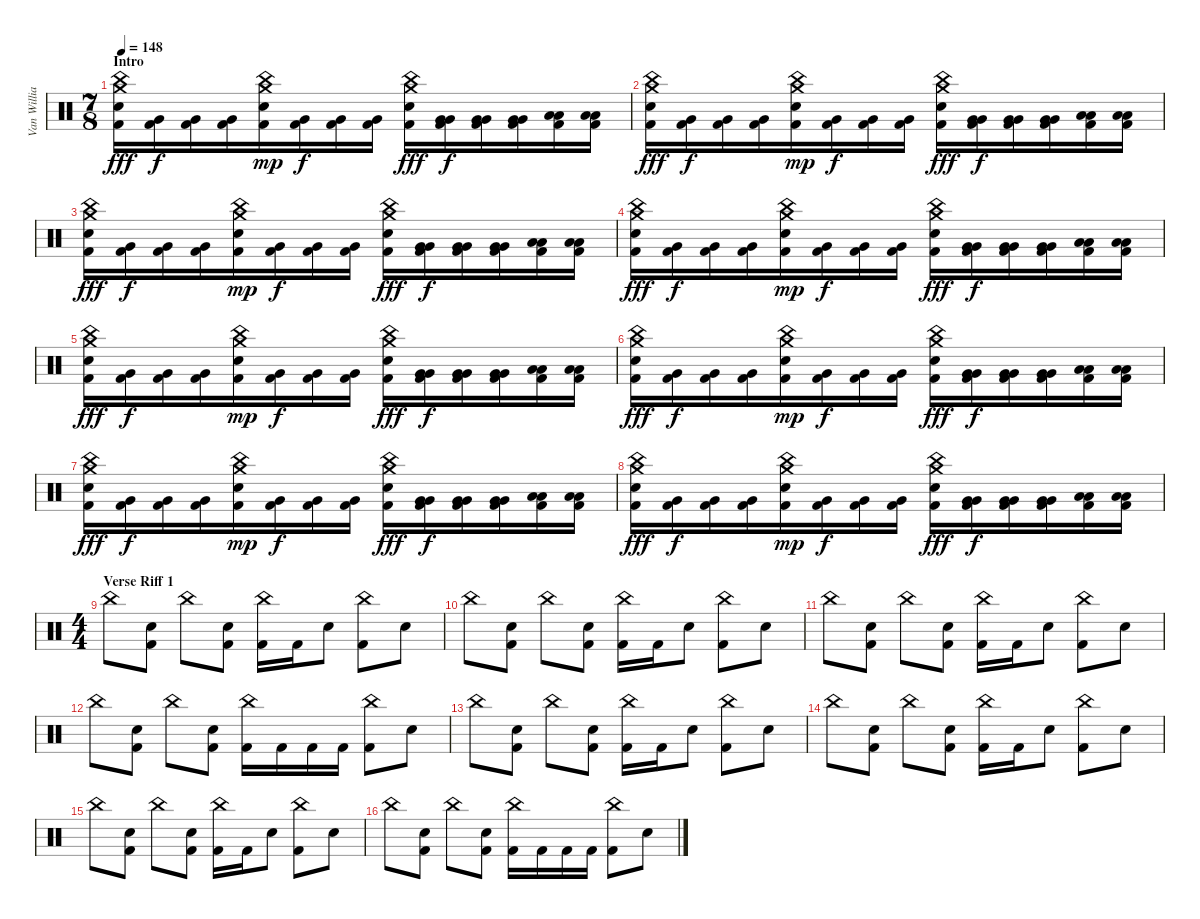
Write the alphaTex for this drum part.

\track ("Van Williams" "Van Willia") {instrument percussion}
\staff {score}
\articulation defaults
\ts (7 8)
\section ("" "Intro")
\tempo 148
\clef neutral
\ks c
("China (hit)" "Crash medium (hit)" "Snare (hit) 2" "Kick (hit) 2").16{dy fff} ("Very Low Tom (hit)" "Kick (hit) 2").16{dy f} ("Very Low Tom (hit)" "Kick (hit) 2").16 ("Very Low Tom (hit)" "Kick (hit) 2").16 ("China (hit)" "Crash medium (hit)" "Snare (hit) 2" "Kick (hit) 2").16{dy mp} ("Very Low Tom (hit)" "Kick (hit) 2").16{dy f} ("Very Low Tom (hit)" "Kick (hit) 2").16 ("Very Low Tom (hit)" "Kick (hit) 2").16 ("China (hit)" "Crash medium (hit)" "Snare (hit) 2" "Kick (hit) 2").16{dy fff} ("Very Low Tom (hit)" "Very Low Tom (hit)" "Kick (hit) 2").16{dy f} ("Very Low Tom (hit)" "Very Low Tom (hit)" "Kick (hit) 2").16 ("Very Low Tom (hit)" "Very Low Tom (hit)" "Kick (hit) 2").16 ("Low Floor Tom (hit)" "Low Floor Tom (hit)" "Kick (hit) 2").16 ("Low Floor Tom (hit)" "Low Floor Tom (hit)" "Kick (hit) 2").16 |
("China (hit)" "Crash medium (hit)" "Snare (hit) 2" "Kick (hit) 2").16{dy fff} ("Very Low Tom (hit)" "Kick (hit) 2").16{dy f} ("Very Low Tom (hit)" "Kick (hit) 2").16 ("Very Low Tom (hit)" "Kick (hit) 2").16 ("China (hit)" "Crash medium (hit)" "Snare (hit) 2" "Kick (hit) 2").16{dy mp} ("Very Low Tom (hit)" "Kick (hit) 2").16{dy f} ("Very Low Tom (hit)" "Kick (hit) 2").16 ("Very Low Tom (hit)" "Kick (hit) 2").16 ("China (hit)" "Crash medium (hit)" "Snare (hit) 2" "Kick (hit) 2").16{dy fff} ("Very Low Tom (hit)" "Very Low Tom (hit)" "Kick (hit) 2").16{dy f} ("Very Low Tom (hit)" "Very Low Tom (hit)" "Kick (hit) 2").16 ("Very Low Tom (hit)" "Very Low Tom (hit)" "Kick (hit) 2").16 ("Low Floor Tom (hit)" "Low Floor Tom (hit)" "Kick (hit) 2").16 ("Low Floor Tom (hit)" "Low Floor Tom (hit)" "Kick (hit) 2").16 |
("China (hit)" "Crash medium (hit)" "Snare (hit) 2" "Kick (hit) 2").16{dy fff} ("Very Low Tom (hit)" "Kick (hit) 2").16{dy f} ("Very Low Tom (hit)" "Kick (hit) 2").16 ("Very Low Tom (hit)" "Kick (hit) 2").16 ("China (hit)" "Crash medium (hit)" "Snare (hit) 2" "Kick (hit) 2").16{dy mp} ("Very Low Tom (hit)" "Kick (hit) 2").16{dy f} ("Very Low Tom (hit)" "Kick (hit) 2").16 ("Very Low Tom (hit)" "Kick (hit) 2").16 ("China (hit)" "Crash medium (hit)" "Snare (hit) 2" "Kick (hit) 2").16{dy fff} ("Very Low Tom (hit)" "Very Low Tom (hit)" "Kick (hit) 2").16{dy f} ("Very Low Tom (hit)" "Very Low Tom (hit)" "Kick (hit) 2").16 ("Very Low Tom (hit)" "Very Low Tom (hit)" "Kick (hit) 2").16 ("Low Floor Tom (hit)" "Low Floor Tom (hit)" "Kick (hit) 2").16 ("Low Floor Tom (hit)" "Low Floor Tom (hit)" "Kick (hit) 2").16 |
("China (hit)" "Crash medium (hit)" "Snare (hit) 2" "Kick (hit) 2").16{dy fff} ("Very Low Tom (hit)" "Kick (hit) 2").16{dy f} ("Very Low Tom (hit)" "Kick (hit) 2").16 ("Very Low Tom (hit)" "Kick (hit) 2").16 ("China (hit)" "Crash medium (hit)" "Snare (hit) 2" "Kick (hit) 2").16{dy mp} ("Very Low Tom (hit)" "Kick (hit) 2").16{dy f} ("Very Low Tom (hit)" "Kick (hit) 2").16 ("Very Low Tom (hit)" "Kick (hit) 2").16 ("China (hit)" "Crash medium (hit)" "Snare (hit) 2" "Kick (hit) 2").16{dy fff} ("Very Low Tom (hit)" "Very Low Tom (hit)" "Kick (hit) 2").16{dy f} ("Very Low Tom (hit)" "Very Low Tom (hit)" "Kick (hit) 2").16 ("Very Low Tom (hit)" "Very Low Tom (hit)" "Kick (hit) 2").16 ("Low Floor Tom (hit)" "Low Floor Tom (hit)" "Kick (hit) 2").16 ("Low Floor Tom (hit)" "Low Floor Tom (hit)" "Kick (hit) 2").16 |
("China (hit)" "Crash medium (hit)" "Snare (hit) 2" "Kick (hit) 2").16{dy fff} ("Very Low Tom (hit)" "Kick (hit) 2").16{dy f} ("Very Low Tom (hit)" "Kick (hit) 2").16 ("Very Low Tom (hit)" "Kick (hit) 2").16 ("China (hit)" "Crash medium (hit)" "Snare (hit) 2" "Kick (hit) 2").16{dy mp} ("Very Low Tom (hit)" "Kick (hit) 2").16{dy f} ("Very Low Tom (hit)" "Kick (hit) 2").16 ("Very Low Tom (hit)" "Kick (hit) 2").16 ("China (hit)" "Crash medium (hit)" "Snare (hit) 2" "Kick (hit) 2").16{dy fff} ("Very Low Tom (hit)" "Very Low Tom (hit)" "Kick (hit) 2").16{dy f} ("Very Low Tom (hit)" "Very Low Tom (hit)" "Kick (hit) 2").16 ("Very Low Tom (hit)" "Very Low Tom (hit)" "Kick (hit) 2").16 ("Low Floor Tom (hit)" "Low Floor Tom (hit)" "Kick (hit) 2").16 ("Low Floor Tom (hit)" "Low Floor Tom (hit)" "Kick (hit) 2").16 |
("China (hit)" "Crash medium (hit)" "Snare (hit) 2" "Kick (hit) 2").16{dy fff} ("Very Low Tom (hit)" "Kick (hit) 2").16{dy f} ("Very Low Tom (hit)" "Kick (hit) 2").16 ("Very Low Tom (hit)" "Kick (hit) 2").16 ("China (hit)" "Crash medium (hit)" "Snare (hit) 2" "Kick (hit) 2").16{dy mp} ("Very Low Tom (hit)" "Kick (hit) 2").16{dy f} ("Very Low Tom (hit)" "Kick (hit) 2").16 ("Very Low Tom (hit)" "Kick (hit) 2").16 ("China (hit)" "Crash medium (hit)" "Snare (hit) 2" "Kick (hit) 2").16{dy fff} ("Very Low Tom (hit)" "Very Low Tom (hit)" "Kick (hit) 2").16{dy f} ("Very Low Tom (hit)" "Very Low Tom (hit)" "Kick (hit) 2").16 ("Very Low Tom (hit)" "Very Low Tom (hit)" "Kick (hit) 2").16 ("Low Floor Tom (hit)" "Low Floor Tom (hit)" "Kick (hit) 2").16 ("Low Floor Tom (hit)" "Low Floor Tom (hit)" "Kick (hit) 2").16 |
("China (hit)" "Crash medium (hit)" "Snare (hit) 2" "Kick (hit) 2").16{dy fff} ("Very Low Tom (hit)" "Kick (hit) 2").16{dy f} ("Very Low Tom (hit)" "Kick (hit) 2").16 ("Very Low Tom (hit)" "Kick (hit) 2").16 ("China (hit)" "Crash medium (hit)" "Snare (hit) 2" "Kick (hit) 2").16{dy mp} ("Very Low Tom (hit)" "Kick (hit) 2").16{dy f} ("Very Low Tom (hit)" "Kick (hit) 2").16 ("Very Low Tom (hit)" "Kick (hit) 2").16 ("China (hit)" "Crash medium (hit)" "Snare (hit) 2" "Kick (hit) 2").16{dy fff} ("Very Low Tom (hit)" "Very Low Tom (hit)" "Kick (hit) 2").16{dy f} ("Very Low Tom (hit)" "Very Low Tom (hit)" "Kick (hit) 2").16 ("Very Low Tom (hit)" "Very Low Tom (hit)" "Kick (hit) 2").16 ("Low Floor Tom (hit)" "Low Floor Tom (hit)" "Kick (hit) 2").16 ("Low Floor Tom (hit)" "Low Floor Tom (hit)" "Kick (hit) 2").16 |
("China (hit)" "Crash medium (hit)" "Snare (hit) 2" "Kick (hit) 2").16{dy fff} ("Very Low Tom (hit)" "Kick (hit) 2").16{dy f} ("Very Low Tom (hit)" "Kick (hit) 2").16 ("Very Low Tom (hit)" "Kick (hit) 2").16 ("China (hit)" "Crash medium (hit)" "Snare (hit) 2" "Kick (hit) 2").16{dy mp} ("Very Low Tom (hit)" "Kick (hit) 2").16{dy f} ("Very Low Tom (hit)" "Kick (hit) 2").16 ("Very Low Tom (hit)" "Kick (hit) 2").16 ("China (hit)" "Crash medium (hit)" "Snare (hit) 2" "Kick (hit) 2").16{dy fff} ("Very Low Tom (hit)" "Very Low Tom (hit)" "Kick (hit) 2").16{dy f} ("Very Low Tom (hit)" "Very Low Tom (hit)" "Kick (hit) 2").16 ("Very Low Tom (hit)" "Very Low Tom (hit)" "Kick (hit) 2").16 ("Low Floor Tom (hit)" "Low Floor Tom (hit)" "Kick (hit) 2").16 ("Low Floor Tom (hit)" "Low Floor Tom (hit)" "Kick (hit) 2").16 |
\ts (4 4)
\section ("" "Verse Riff 1")
"China (hit)".8 ("Electric Snare (hit)" "Kick (hit) 2").8 "China (hit)".8 ("Electric Snare (hit)" "Kick (hit) 2").8 ("China (hit)" "Kick (hit) 2").16 "Kick (hit) 2".16 "Electric Snare (hit)".8 ("China (hit)" "Kick (hit) 2").8 "Electric Snare (hit)".8 |
"China (hit)".8 ("Electric Snare (hit)" "Kick (hit) 2").8 "China (hit)".8 ("Electric Snare (hit)" "Kick (hit) 2").8 ("China (hit)" "Kick (hit) 2").16 "Kick (hit) 2".16 "Electric Snare (hit)".8 ("China (hit)" "Kick (hit) 2").8 "Electric Snare (hit)".8 |
"China (hit)".8 ("Electric Snare (hit)" "Kick (hit) 2").8 "China (hit)".8 ("Electric Snare (hit)" "Kick (hit) 2").8 ("China (hit)" "Kick (hit) 2").16 "Kick (hit) 2".16 "Electric Snare (hit)".8 ("China (hit)" "Kick (hit) 2").8 "Electric Snare (hit)".8 |
"China (hit)".8 ("Electric Snare (hit)" "Kick (hit) 2").8 "China (hit)".8 ("Electric Snare (hit)" "Kick (hit) 2").8 ("China (hit)" "Kick (hit) 2").16 "Kick (hit) 2".16 "Kick (hit) 2".16 "Kick (hit) 2".16 ("China (hit)" "Kick (hit) 2").8 "Electric Snare (hit)".8 |
"China (hit)".8 ("Electric Snare (hit)" "Kick (hit) 2").8 "China (hit)".8 ("Electric Snare (hit)" "Kick (hit) 2").8 ("China (hit)" "Kick (hit) 2").16 "Kick (hit) 2".16 "Electric Snare (hit)".8 ("China (hit)" "Kick (hit) 2").8 "Electric Snare (hit)".8 |
"China (hit)".8 ("Electric Snare (hit)" "Kick (hit) 2").8 "China (hit)".8 ("Electric Snare (hit)" "Kick (hit) 2").8 ("China (hit)" "Kick (hit) 2").16 "Kick (hit) 2".16 "Electric Snare (hit)".8 ("China (hit)" "Kick (hit) 2").8 "Electric Snare (hit)".8 |
"China (hit)".8 ("Electric Snare (hit)" "Kick (hit) 2").8 "China (hit)".8 ("Electric Snare (hit)" "Kick (hit) 2").8 ("China (hit)" "Kick (hit) 2").16 "Kick (hit) 2".16 "Electric Snare (hit)".8 ("China (hit)" "Kick (hit) 2").8 "Electric Snare (hit)".8 |
"China (hit)".8 ("Electric Snare (hit)" "Kick (hit) 2").8 "China (hit)".8 ("Electric Snare (hit)" "Kick (hit) 2").8 ("China (hit)" "Kick (hit) 2").16 "Kick (hit) 2".16 "Kick (hit) 2".16 "Kick (hit) 2".16 ("China (hit)" "Kick (hit) 2").8 "Electric Snare (hit)".8
